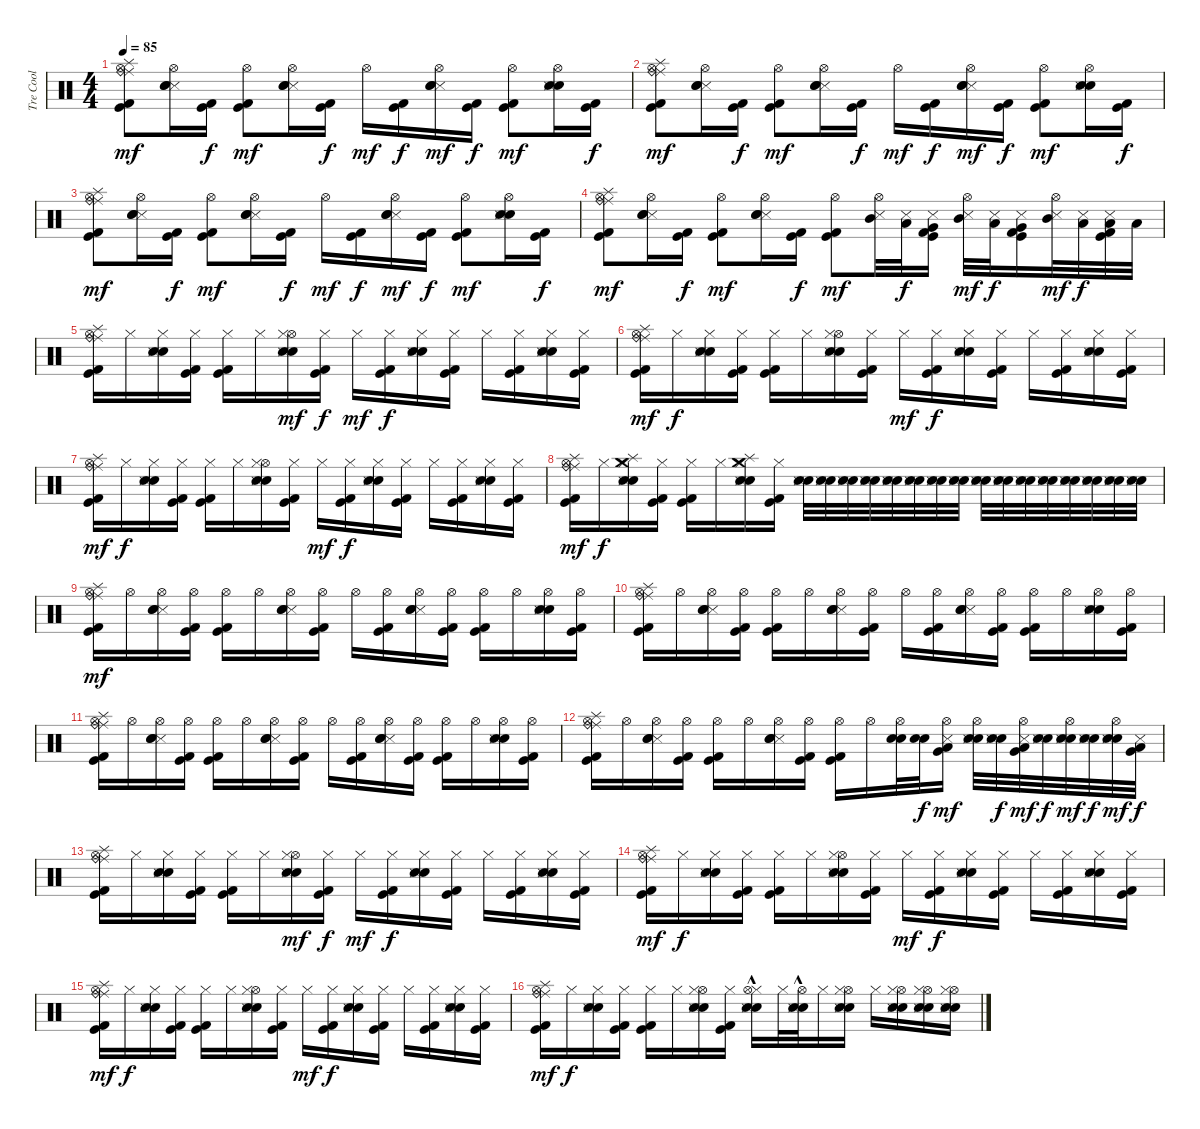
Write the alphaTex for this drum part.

\track ("Tre Cool" "Tre Cool") {instrument percussion}
\staff {score}
\articulation defaults
\ts (4 4)
\tempo 85
\clef neutral
\ks c
("Hi-Hat (open)" "Splash (hit)" "Ride (middle)" "Kick (hit)" "Kick (hit) 2" "Ride (bell)").8{dy mf} ("Hi-Hat (open)" "Metronome (hit)" "Snare (hit) 2" "Electric Snare (hit)").16 ("Kick (hit) 2" "Kick (hit)").16{dy f} ("Hi-Hat (open)" "Kick (hit) 2" "Kick (hit)").8{dy mf} ("Hi-Hat (open)" "Metronome (hit)" "Snare (hit) 2" "Electric Snare (hit)").16 ("Kick (hit) 2" "Kick (hit)").16{dy f} "Hi-Hat (open)".16{dy mf} ("Kick (hit)" "Kick (hit) 2").16{dy f} ("Hi-Hat (open)" "Metronome (hit)" "Electric Snare (hit)" "Snare (hit) 2").16{dy mf} ("Kick (hit)" "Kick (hit) 2").16{dy f} ("Hi-Hat (open)" "Kick (hit)" "Kick (hit) 2").8{dy mf} ("Hi-Hat (open)" "Electric Snare (hit)" "Metronome (hit)" "Snare (hit) 2").16 ("Kick (hit)" "Kick (hit) 2").16{dy f} |
("Hi-Hat (open)" "Splash (hit)" "Ride (middle)" "Kick (hit)" "Kick (hit) 2" "Ride (bell)").8{dy mf} ("Hi-Hat (open)" "Metronome (hit)" "Snare (hit) 2" "Electric Snare (hit)").16 ("Kick (hit) 2" "Kick (hit)").16{dy f} ("Hi-Hat (open)" "Kick (hit) 2" "Kick (hit)").8{dy mf} ("Hi-Hat (open)" "Metronome (hit)" "Snare (hit) 2" "Electric Snare (hit)").16 ("Kick (hit) 2" "Kick (hit)").16{dy f} "Hi-Hat (open)".16{dy mf} ("Kick (hit)" "Kick (hit) 2").16{dy f} ("Hi-Hat (open)" "Metronome (hit)" "Electric Snare (hit)" "Snare (hit) 2").16{dy mf} ("Kick (hit)" "Kick (hit) 2").16{dy f} ("Hi-Hat (open)" "Kick (hit)" "Kick (hit) 2").8{dy mf} ("Hi-Hat (open)" "Electric Snare (hit)" "Metronome (hit)" "Snare (hit) 2").16 ("Kick (hit)" "Kick (hit) 2").16{dy f} |
("Hi-Hat (open)" "Splash (hit)" "Ride (middle)" "Kick (hit)" "Kick (hit) 2" "Ride (bell)").8{dy mf} ("Hi-Hat (open)" "Metronome (hit)" "Snare (hit) 2" "Electric Snare (hit)").16 ("Kick (hit) 2" "Kick (hit)").16{dy f} ("Hi-Hat (open)" "Kick (hit) 2" "Kick (hit)").8{dy mf} ("Hi-Hat (open)" "Metronome (hit)" "Snare (hit) 2" "Electric Snare (hit)").16 ("Kick (hit) 2" "Kick (hit)").16{dy f} "Hi-Hat (open)".16{dy mf} ("Kick (hit)" "Kick (hit) 2").16{dy f} ("Hi-Hat (open)" "Metronome (hit)" "Electric Snare (hit)" "Snare (hit) 2").16{dy mf} ("Kick (hit)" "Kick (hit) 2").16{dy f} ("Hi-Hat (open)" "Kick (hit)" "Kick (hit) 2").8{dy mf} ("Hi-Hat (open)" "Electric Snare (hit)" "Metronome (hit)" "Snare (hit) 2").16 ("Kick (hit)" "Kick (hit) 2").16{dy f} |
("Hi-Hat (open)" "Splash (hit)" "Ride (middle)" "Kick (hit)" "Kick (hit) 2" "Ride (bell)").8{dy mf} ("Hi-Hat (open)" "Metronome (hit)" "Snare (hit) 2" "Electric Snare (hit)").16 ("Kick (hit)" "Kick (hit) 2").16{dy f} ("Hi-Hat (open)" "Kick (hit) 2" "Kick (hit)").8{dy mf} ("Hi-Hat (open)" "Metronome (hit)" "Snare (hit) 2" "Electric Snare (hit)").16 ("Kick (hit)" "Kick (hit) 2").16{dy f} ("Kick (hit)" "Kick (hit) 2" "Hi-Hat (open)").8{dy mf} ("Mid Tom (hit)" "Metronome (hit)" "Hi-Hat (open)").32 ("Low Tom (hit)" "Metronome (hit)").32{dy f} ("Kick (hit)" "Metronome (hit)" "Kick (hit) 2" "Very Low Tom (hit)").16 ("Metronome (hit)" "Mid Tom (hit)" "Hi-Hat (open)").32{dy mf} ("Metronome (hit)" "Low Tom (hit)").32{dy f} ("Kick (hit)" "Very Low Tom (hit)" "Kick (hit) 2" "Metronome (hit)").16 ("Metronome (hit)" "Mid Tom (hit)" "Hi-Hat (open)").32{dy mf} ("Metronome (hit)" "Low Tom (hit)").32{dy f} ("Kick (hit)" "Kick (hit) 2" "Metronome (hit)" "Low Floor Tom (hit)").32 "Low Tom (hit)".32 |
("Kick (hit)" "Kick (hit) 2" "Hi-Hat (open)" "Splash (hit)" "Ride (middle)" "Ride (bell)").16 "Hi-Hat (closed)".16 ("Electric Snare (hit)" "Snare (hit) 2" "Metronome (hit)" "Hi-Hat (closed)").16 ("Kick (hit)" "Kick (hit) 2" "Hi-Hat (closed)").16 ("Kick (hit)" "Kick (hit) 2" "Hi-Hat (closed)").16 "Hi-Hat (closed)".16 ("Hi-Hat (open)" "Electric Snare (hit)" "Metronome (hit)" "Snare (hit) 2" "Hi-Hat (closed)").16{dy mf} ("Kick (hit)" "Kick (hit) 2" "Hi-Hat (closed)").16{dy f} "Hi-Hat (closed)".16{dy mf} ("Kick (hit)" "Kick (hit) 2" "Hi-Hat (closed)").16{dy f} ("Electric Snare (hit)" "Metronome (hit)" "Snare (hit) 2" "Hi-Hat (closed)").16 ("Kick (hit)" "Kick (hit) 2" "Hi-Hat (closed)").16 "Hi-Hat (closed)".16 ("Kick (hit)" "Kick (hit) 2" "Hi-Hat (closed)").16 ("Hand Clap (hit)" "Metronome (hit)" "Snare (hit) 2" "Hi-Hat (closed)").16 ("Kick (hit)" "Kick (hit) 2" "Hi-Hat (closed)").16 |
("Hi-Hat (open)" "Ride (middle)" "Ride (bell)" "Splash (hit)" "Kick (hit)" "Kick (hit) 2").16{dy mf} "Hi-Hat (closed)".16{dy f} ("Electric Snare (hit)" "Snare (hit) 2" "Metronome (hit)" "Hi-Hat (closed)").16 ("Kick (hit)" "Kick (hit) 2" "Hi-Hat (closed)").16 ("Kick (hit)" "Kick (hit) 2" "Hi-Hat (closed)").16 "Hi-Hat (closed)".16 ("Hi-Hat (open)" "Electric Snare (hit)" "Metronome (hit)" "Snare (hit) 2" "Hi-Hat (closed)").16 ("Kick (hit)" "Kick (hit) 2" "Hi-Hat (closed)").16 "Hi-Hat (closed)".16{dy mf} ("Kick (hit)" "Kick (hit) 2" "Hi-Hat (closed)").16{dy f} ("Electric Snare (hit)" "Metronome (hit)" "Snare (hit) 2" "Hi-Hat (closed)").16 ("Kick (hit)" "Kick (hit) 2" "Hi-Hat (closed)").16 "Hi-Hat (closed)".16 ("Kick (hit)" "Kick (hit) 2" "Hi-Hat (closed)").16 ("Hand Clap (hit)" "Metronome (hit)" "Snare (hit) 2" "Hi-Hat (closed)").16 ("Kick (hit)" "Kick (hit) 2" "Hi-Hat (closed)").16 |
("Hi-Hat (open)" "Ride (middle)" "Ride (bell)" "Splash (hit)" "Kick (hit)" "Kick (hit) 2").16{dy mf} "Hi-Hat (closed)".16{dy f} ("Electric Snare (hit)" "Snare (hit) 2" "Metronome (hit)" "Hi-Hat (closed)").16 ("Kick (hit)" "Kick (hit) 2" "Hi-Hat (closed)").16 ("Kick (hit)" "Kick (hit) 2" "Hi-Hat (closed)").16 "Hi-Hat (closed)".16 ("Hi-Hat (open)" "Electric Snare (hit)" "Metronome (hit)" "Snare (hit) 2" "Hi-Hat (closed)").16 ("Kick (hit)" "Kick (hit) 2" "Hi-Hat (closed)").16 "Hi-Hat (closed)".16{dy mf} ("Kick (hit)" "Kick (hit) 2" "Hi-Hat (closed)").16{dy f} ("Electric Snare (hit)" "Metronome (hit)" "Snare (hit) 2" "Hi-Hat (closed)").16 ("Kick (hit)" "Kick (hit) 2" "Hi-Hat (closed)").16 "Hi-Hat (closed)".16 ("Kick (hit)" "Kick (hit) 2" "Hi-Hat (closed)").16 ("Hand Clap (hit)" "Metronome (hit)" "Snare (hit) 2" "Hi-Hat (closed)").16 ("Kick (hit)" "Kick (hit) 2" "Hi-Hat (closed)").16 |
("Splash (hit)" "Hi-Hat (open)" "Ride (middle)" "Ride (bell)" "Kick (hit)" "Kick (hit) 2").16{dy mf} "Hi-Hat (closed)".16{dy f} ("Splash (hit)" "Crash medium (hit)" "Electric Snare (hit)" "Snare (hit) 2" "Metronome (hit)" "Hi-Hat (closed)").16 ("Kick (hit)" "Kick (hit) 2" "Hi-Hat (closed)").16 ("Kick (hit)" "Kick (hit) 2" "Hi-Hat (closed)").16 "Hi-Hat (closed)".16 ("Crash medium (hit)" "Splash (hit)" "Electric Snare (hit)" "Metronome (hit)" "Snare (hit) 2" "Hi-Hat (closed)").16 ("Kick (hit) 2" "Kick (hit)" "Hi-Hat (closed)").16 ("Electric Snare (hit)" "Snare (hit) 2" "Metronome (hit)").32 ("Electric Snare (hit)" "Metronome (hit)" "Snare (hit) 2").32 ("Electric Snare (hit)" "Metronome (hit)" "Snare (hit) 2").32 ("Electric Snare (hit)" "Metronome (hit)" "Snare (hit) 2").32 ("Electric Snare (hit)" "Metronome (hit)" "Snare (hit) 2").32 ("Electric Snare (hit)" "Metronome (hit)" "Snare (hit) 2").32 ("Electric Snare (hit)" "Metronome (hit)" "Snare (hit) 2").32 ("Electric Snare (hit)" "Metronome (hit)" "Snare (hit) 2").32 ("Electric Snare (hit)" "Metronome (hit)" "Snare (hit) 2").32 ("Electric Snare (hit)" "Metronome (hit)" "Snare (hit) 2").32 ("Electric Snare (hit)" "Metronome (hit)" "Snare (hit) 2").32 ("Electric Snare (hit)" "Metronome (hit)" "Snare (hit) 2").32 ("Electric Snare (hit)" "Metronome (hit)" "Snare (hit) 2").32 ("Electric Snare (hit)" "Metronome (hit)" "Snare (hit) 2").32 ("Electric Snare (hit)" "Metronome (hit)" "Snare (hit) 2").32 ("Electric Snare (hit)" "Metronome (hit)" "Snare (hit) 2").32 |
("Hi-Hat (open)" "Splash (hit)" "Ride (middle)" "Kick (hit)" "Kick (hit) 2" "Ride (bell)").16{dy mf} "Hi-Hat (open)".16 ("Hi-Hat (open)" "Metronome (hit)" "Snare (hit) 2" "Electric Snare (hit)").16 ("Hi-Hat (open)" "Kick (hit) 2" "Kick (hit)").16 ("Hi-Hat (open)" "Kick (hit) 2" "Kick (hit)").16 "Hi-Hat (open)".16 ("Hi-Hat (open)" "Metronome (hit)" "Snare (hit) 2" "Electric Snare (hit)").16 ("Hi-Hat (open)" "Kick (hit) 2" "Kick (hit)").16 "Hi-Hat (open)".16 ("Hi-Hat (open)" "Kick (hit)" "Kick (hit) 2").16 ("Hi-Hat (open)" "Metronome (hit)" "Electric Snare (hit)" "Snare (hit) 2").16 ("Hi-Hat (open)" "Kick (hit)" "Kick (hit) 2").16 ("Hi-Hat (open)" "Kick (hit)" "Kick (hit) 2").16 "Hi-Hat (open)".16 ("Hi-Hat (open)" "Electric Snare (hit)" "Metronome (hit)" "Snare (hit) 2").16 ("Hi-Hat (open)" "Kick (hit)" "Kick (hit) 2").16 |
("Hi-Hat (open)" "Splash (hit)" "Ride (middle)" "Kick (hit)" "Kick (hit) 2" "Ride (bell)").16 "Hi-Hat (open)".16 ("Hi-Hat (open)" "Metronome (hit)" "Snare (hit) 2" "Electric Snare (hit)").16 ("Hi-Hat (open)" "Kick (hit) 2" "Kick (hit)").16 ("Hi-Hat (open)" "Kick (hit) 2" "Kick (hit)").16 "Hi-Hat (open)".16 ("Hi-Hat (open)" "Metronome (hit)" "Snare (hit) 2" "Electric Snare (hit)").16 ("Hi-Hat (open)" "Kick (hit) 2" "Kick (hit)").16 "Hi-Hat (open)".16 ("Hi-Hat (open)" "Kick (hit)" "Kick (hit) 2").16 ("Hi-Hat (open)" "Metronome (hit)" "Electric Snare (hit)" "Snare (hit) 2").16 ("Hi-Hat (open)" "Kick (hit)" "Kick (hit) 2").16 ("Hi-Hat (open)" "Kick (hit)" "Kick (hit) 2").16 "Hi-Hat (open)".16 ("Hi-Hat (open)" "Electric Snare (hit)" "Metronome (hit)" "Snare (hit) 2").16 ("Hi-Hat (open)" "Kick (hit)" "Kick (hit) 2").16 |
("Hi-Hat (open)" "Splash (hit)" "Ride (middle)" "Kick (hit)" "Kick (hit) 2" "Ride (bell)").16 "Hi-Hat (open)".16 ("Hi-Hat (open)" "Metronome (hit)" "Snare (hit) 2" "Electric Snare (hit)").16 ("Hi-Hat (open)" "Kick (hit) 2" "Kick (hit)").16 ("Hi-Hat (open)" "Kick (hit) 2" "Kick (hit)").16 "Hi-Hat (open)".16 ("Hi-Hat (open)" "Metronome (hit)" "Snare (hit) 2" "Electric Snare (hit)").16 ("Hi-Hat (open)" "Kick (hit) 2" "Kick (hit)").16 "Hi-Hat (open)".16 ("Hi-Hat (open)" "Kick (hit)" "Kick (hit) 2").16 ("Hi-Hat (open)" "Metronome (hit)" "Electric Snare (hit)" "Snare (hit) 2").16 ("Hi-Hat (open)" "Kick (hit)" "Kick (hit) 2").16 ("Hi-Hat (open)" "Kick (hit)" "Kick (hit) 2").16 "Hi-Hat (open)".16 ("Hi-Hat (open)" "Electric Snare (hit)" "Metronome (hit)" "Snare (hit) 2").16 ("Hi-Hat (open)" "Kick (hit)" "Kick (hit) 2").16 |
("Hi-Hat (open)" "Splash (hit)" "Ride (middle)" "Kick (hit)" "Kick (hit) 2" "Ride (bell)").16 "Hi-Hat (open)".16 ("Hi-Hat (open)" "Metronome (hit)" "Snare (hit) 2" "Electric Snare (hit)").16 ("Hi-Hat (open)" "Kick (hit) 2" "Kick (hit)").16 ("Hi-Hat (open)" "Kick (hit) 2" "Kick (hit)").16 "Hi-Hat (open)".16 ("Hi-Hat (open)" "Metronome (hit)" "Snare (hit) 2" "Electric Snare (hit)").16 ("Kick (hit) 2" "Kick (hit)" "Hi-Hat (open)").16 ("Kick (hit)" "Kick (hit) 2" "Hi-Hat (open)").16 "Hi-Hat (open)".16 ("Electric Snare (hit)" "Snare (hit) 2" "Hi-Hat (open)").32 ("Electric Snare (hit)" "Snare (hit) 2").32{dy f} ("Metronome (hit)" "Low Tom (hit)" "Very Low Tom (hit)" "Hi-Hat (open)").16{dy mf} ("Electric Snare (hit)" "Metronome (hit)" "Snare (hit) 2" "Hi-Hat (open)").32 ("Electric Snare (hit)" "Snare (hit) 2" "Metronome (hit)").32{dy f} ("Metronome (hit)" "Low Tom (hit)" "Very Low Tom (hit)" "Hi-Hat (open)").32{dy mf} ("Electric Snare (hit)" "Snare (hit) 2" "Metronome (hit)").32{dy f} ("Electric Snare (hit)" "Snare (hit) 2" "Metronome (hit)" "Hi-Hat (open)").32{dy mf} ("Electric Snare (hit)" "Metronome (hit)" "Snare (hit) 2").32{dy f} ("Electric Snare (hit)" "Metronome (hit)" "Snare (hit) 2" "Hi-Hat (open)").32{dy mf} ("Low Tom (hit)" "Very Low Tom (hit)" "Metronome (hit)").32{dy f} |
("Kick (hit)" "Kick (hit) 2" "Hi-Hat (open)" "Splash (hit)" "Ride (middle)" "Ride (bell)").16 "Hi-Hat (closed)".16 ("Electric Snare (hit)" "Snare (hit) 2" "Metronome (hit)" "Hi-Hat (closed)").16 ("Kick (hit)" "Kick (hit) 2" "Hi-Hat (closed)").16 ("Kick (hit)" "Kick (hit) 2" "Hi-Hat (closed)").16 "Hi-Hat (closed)".16 ("Hi-Hat (open)" "Electric Snare (hit)" "Metronome (hit)" "Snare (hit) 2" "Hi-Hat (closed)").16{dy mf} ("Kick (hit)" "Kick (hit) 2" "Hi-Hat (closed)").16{dy f} "Hi-Hat (closed)".16{dy mf} ("Kick (hit)" "Kick (hit) 2" "Hi-Hat (closed)").16{dy f} ("Electric Snare (hit)" "Metronome (hit)" "Snare (hit) 2" "Hi-Hat (closed)").16 ("Kick (hit)" "Kick (hit) 2" "Hi-Hat (closed)").16 "Hi-Hat (closed)".16 ("Kick (hit)" "Kick (hit) 2" "Hi-Hat (closed)").16 ("Hand Clap (hit)" "Metronome (hit)" "Snare (hit) 2" "Hi-Hat (closed)").16 ("Kick (hit)" "Kick (hit) 2" "Hi-Hat (closed)").16 |
("Hi-Hat (open)" "Ride (middle)" "Ride (bell)" "Splash (hit)" "Kick (hit)" "Kick (hit) 2").16{dy mf} "Hi-Hat (closed)".16{dy f} ("Electric Snare (hit)" "Snare (hit) 2" "Metronome (hit)" "Hi-Hat (closed)").16 ("Kick (hit)" "Kick (hit) 2" "Hi-Hat (closed)").16 ("Kick (hit)" "Kick (hit) 2" "Hi-Hat (closed)").16 "Hi-Hat (closed)".16 ("Hi-Hat (open)" "Electric Snare (hit)" "Metronome (hit)" "Snare (hit) 2" "Hi-Hat (closed)").16 ("Kick (hit)" "Kick (hit) 2" "Hi-Hat (closed)").16 "Hi-Hat (closed)".16{dy mf} ("Kick (hit)" "Kick (hit) 2" "Hi-Hat (closed)").16{dy f} ("Electric Snare (hit)" "Metronome (hit)" "Snare (hit) 2" "Hi-Hat (closed)").16 ("Kick (hit)" "Kick (hit) 2" "Hi-Hat (closed)").16 "Hi-Hat (closed)".16 ("Kick (hit)" "Kick (hit) 2" "Hi-Hat (closed)").16 ("Hand Clap (hit)" "Metronome (hit)" "Snare (hit) 2" "Hi-Hat (closed)").16 ("Kick (hit)" "Kick (hit) 2" "Hi-Hat (closed)").16 |
("Hi-Hat (open)" "Ride (middle)" "Ride (bell)" "Splash (hit)" "Kick (hit)" "Kick (hit) 2").16{dy mf} "Hi-Hat (closed)".16{dy f} ("Electric Snare (hit)" "Snare (hit) 2" "Metronome (hit)" "Hi-Hat (closed)").16 ("Kick (hit)" "Kick (hit) 2" "Hi-Hat (closed)").16 ("Kick (hit)" "Kick (hit) 2" "Hi-Hat (closed)").16 "Hi-Hat (closed)".16 ("Hi-Hat (open)" "Electric Snare (hit)" "Metronome (hit)" "Snare (hit) 2" "Hi-Hat (closed)").16 ("Kick (hit)" "Kick (hit) 2" "Hi-Hat (closed)").16 "Hi-Hat (closed)".16{dy mf} ("Kick (hit)" "Kick (hit) 2" "Hi-Hat (closed)").16{dy f} ("Electric Snare (hit)" "Metronome (hit)" "Snare (hit) 2" "Hi-Hat (closed)").16 ("Kick (hit)" "Kick (hit) 2" "Hi-Hat (closed)").16 "Hi-Hat (closed)".16 ("Kick (hit)" "Kick (hit) 2" "Hi-Hat (closed)").16 ("Hand Clap (hit)" "Metronome (hit)" "Snare (hit) 2" "Hi-Hat (closed)").16 ("Kick (hit)" "Kick (hit) 2" "Hi-Hat (closed)").16 |
("Hi-Hat (open)" "Ride (middle)" "Ride (bell)" "Splash (hit)" "Kick (hit)" "Kick (hit) 2").16{dy mf} "Hi-Hat (closed)".16{dy f} ("Electric Snare (hit)" "Snare (hit) 2" "Metronome (hit)" "Hi-Hat (closed)").16 ("Kick (hit)" "Kick (hit) 2" "Hi-Hat (closed)").16 ("Kick (hit)" "Kick (hit) 2" "Hi-Hat (closed)").16 "Hi-Hat (closed)".16 ("Hi-Hat (open)" "Electric Snare (hit)" "Metronome (hit)" "Snare (hit) 2" "Hi-Hat (closed)").16 ("Kick (hit)" "Kick (hit) 2" "Hi-Hat (closed)").16 ("Electric Snare (hit)"{hac} "Hi-Hat (closed)" "Snare (hit) 2"{hac} "Metronome (hit)"{hac} "Hi-Hat (open)").16 "Hi-Hat (closed)".32 ("Electric Snare (hit)"{hac} "Metronome (hit)"{hac} "Hi-Hat (open)"{hac} "Snare (hit) 2"{hac}).32 "Hi-Hat (closed)".16 ("Electric Snare (hit)" "Snare (hit) 2" "Metronome (hit)" "Hi-Hat (open)" "Hi-Hat (closed)").16 "Hi-Hat (closed)".16 ("Electric Snare (hit)" "Snare (hit) 2" "Metronome (hit)" "Hi-Hat (open)" "Hi-Hat (closed)").16 ("Electric Snare (hit)" "Snare (hit) 2" "Metronome (hit)" "Hi-Hat (open)" "Hi-Hat (closed)").16 ("Electric Snare (hit)" "Snare (hit) 2" "Metronome (hit)" "Hi-Hat (open)" "Hi-Hat (closed)").16
